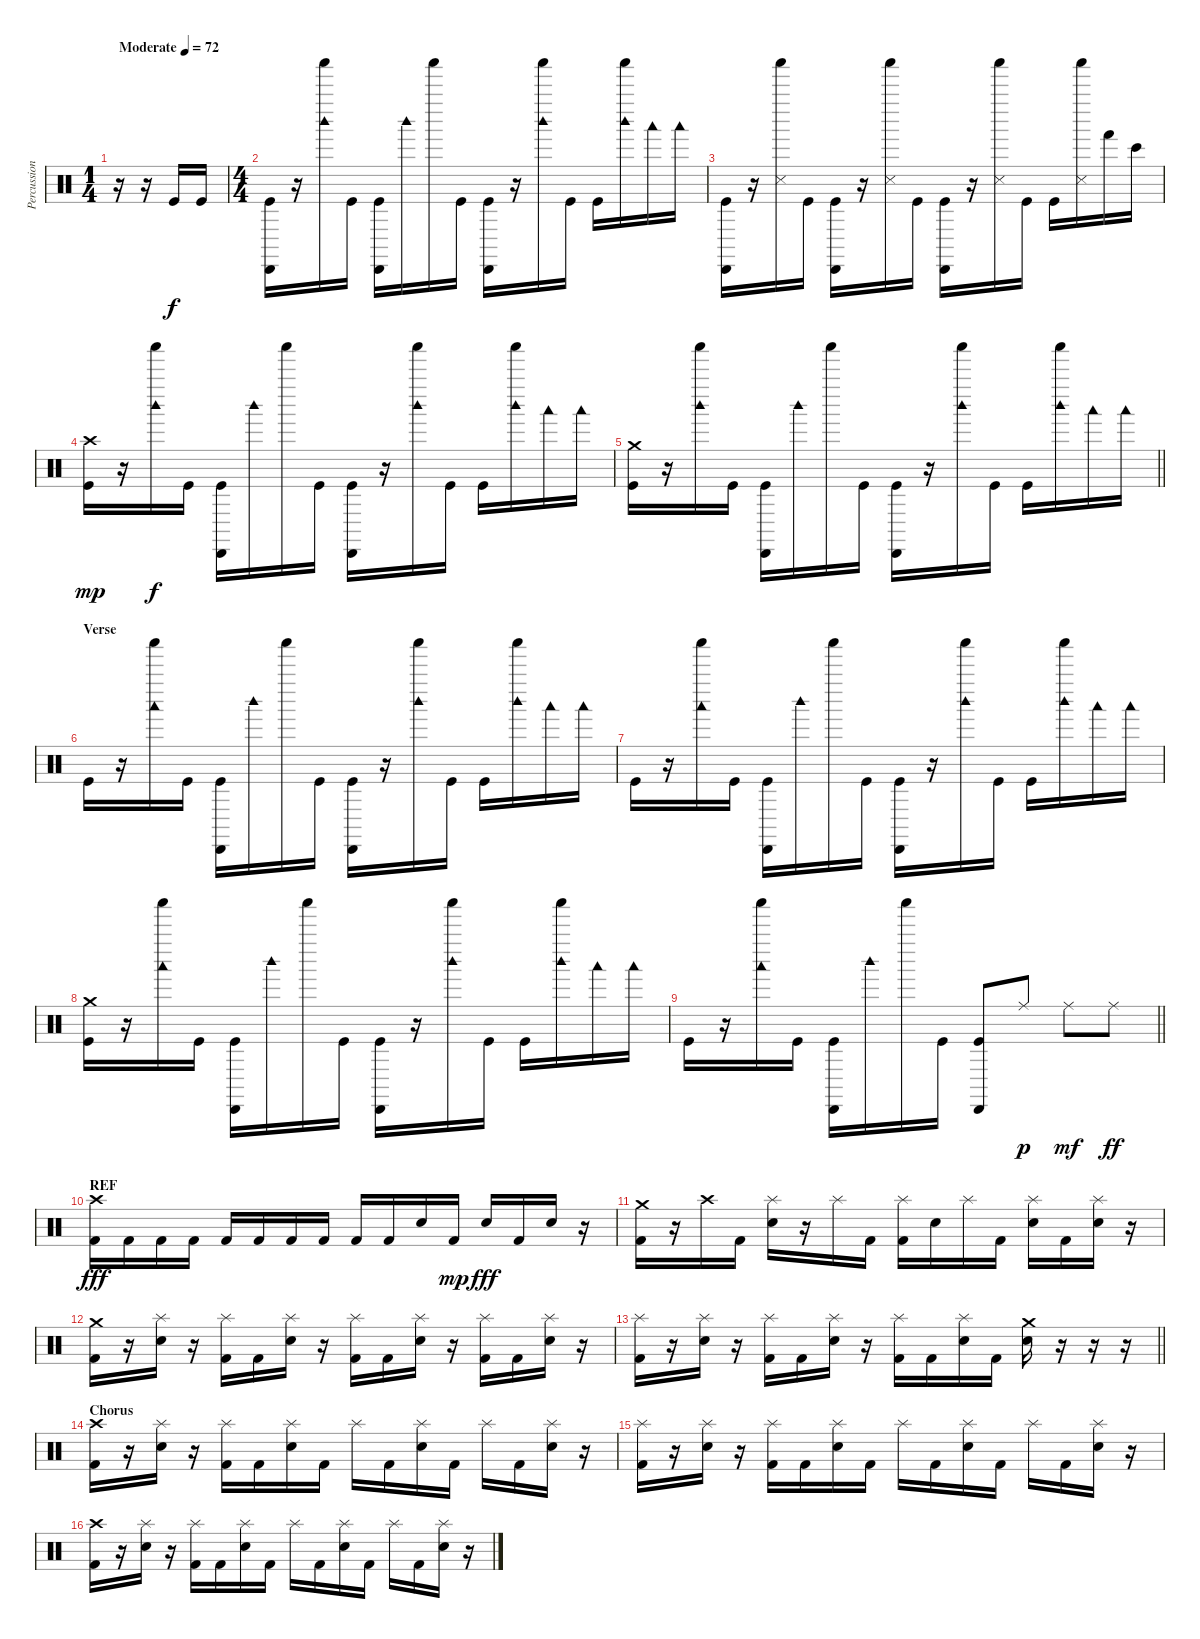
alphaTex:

\track ("Percussion" "Percussion") {instrument percussion}
\staff {score}
\articulation defaults
\ts (1 4)
\tempo (72 "Moderate")
\clef neutral
\ks c
r.16{dy f} r.16 "Kick (hit)".16 "Kick (hit)".16 |
\ts (4 4)
("Cabasa (hit)" "Kick (hit)").16 r.16 ("Shaker (hit)" "Woodblock high (hit)").16 "Kick (hit)".16 ("Cabasa (hit)" "Kick (hit)").16 "Woodblock high (hit)".16 "Shaker (hit)".16 "Kick (hit)".16 ("Cabasa (hit)" "Kick (hit)").16 r.16 ("Shaker (hit)" "Woodblock high (hit)").16 "Kick (hit)".16 "Kick (hit)".16 ("Shaker (hit)" "Woodblock high (hit)").16 "Woodblock low (hit)".16 "Woodblock low (hit)".16 |
("Cabasa (hit)" "Kick (hit)").16 r.16 ("Shaker (hit)" "Metronome (hit)").16 "Kick (hit)".16 ("Cabasa (hit)" "Kick (hit)").16 r.16 ("Shaker (hit)" "Metronome (hit)").16 "Kick (hit)".16 ("Cabasa (hit)" "Kick (hit)").16 r.16 ("Shaker (hit)" "Metronome (hit)").16 "Kick (hit)".16 "Kick (hit)".16 ("Shaker (hit)" "Metronome (hit)").16 "Hand (hit)".16 "Bongo High (hit)".16 |
("Crash high (hit)" "Kick (hit)").16{dy mp} r.16 ("Shaker (hit)" "Woodblock high (hit)").16{dy f} "Kick (hit)".16 ("Cabasa (hit)" "Kick (hit)").16 "Woodblock high (hit)".16 "Shaker (hit)".16 "Kick (hit)".16 ("Cabasa (hit)" "Kick (hit)").16 r.16 ("Shaker (hit)" "Woodblock high (hit)").16 "Kick (hit)".16 "Kick (hit)".16 ("Shaker (hit)" "Woodblock high (hit)").16 "Woodblock low (hit)".16 "Woodblock low (hit)".16 |
\barLineRight lightlight
("Crash medium (hit)" "Kick (hit)").16 r.16 ("Shaker (hit)" "Woodblock high (hit)").16 "Kick (hit)".16 ("Cabasa (hit)" "Kick (hit)").16 "Woodblock high (hit)".16 "Shaker (hit)".16 "Kick (hit)".16 ("Cabasa (hit)" "Kick (hit)").16 r.16 ("Shaker (hit)" "Woodblock high (hit)").16 "Kick (hit)".16 "Kick (hit)".16 ("Shaker (hit)" "Woodblock high (hit)").16 "Woodblock low (hit)".16 "Woodblock low (hit)".16 |
\section ("" "Verse")
"Kick (hit)".16 r.16 ("Shaker (hit)" "Woodblock low (hit)").16 "Kick (hit)".16 ("Cabasa (hit)" "Kick (hit)").16 "Woodblock high (hit)".16 "Shaker (hit)".16 "Kick (hit)".16 ("Cabasa (hit)" "Kick (hit)").16 r.16 ("Shaker (hit)" "Woodblock high (hit)").16 "Kick (hit)".16 "Kick (hit)".16 ("Shaker (hit)" "Woodblock high (hit)").16 "Woodblock low (hit)".16 "Woodblock low (hit)".16 |
"Kick (hit)".16 r.16 ("Shaker (hit)" "Woodblock low (hit)").16 "Kick (hit)".16 ("Cabasa (hit)" "Kick (hit)").16 "Woodblock high (hit)".16 "Shaker (hit)".16 "Kick (hit)".16 ("Cabasa (hit)" "Kick (hit)").16 r.16 ("Shaker (hit)" "Woodblock high (hit)").16 "Kick (hit)".16 "Kick (hit)".16 ("Shaker (hit)" "Woodblock high (hit)").16 "Woodblock low (hit)".16 "Woodblock low (hit)".16 |
("Crash medium (hit)" "Kick (hit)").16 r.16 ("Shaker (hit)" "Woodblock low (hit)").16 "Kick (hit)".16 ("Cabasa (hit)" "Kick (hit)").16 "Woodblock high (hit)".16 "Shaker (hit)".16 "Kick (hit)".16 ("Cabasa (hit)" "Kick (hit)").16 r.16 ("Shaker (hit)" "Woodblock high (hit)").16 "Kick (hit)".16 "Kick (hit)".16 ("Shaker (hit)" "Woodblock high (hit)").16 "Woodblock low (hit)".16 "Woodblock low (hit)".16 |
\barLineRight lightlight "Kick (hit)".16
r.16 ("Shaker (hit)" "Woodblock low (hit)").16 "Kick (hit)".16 ("Cabasa (hit)" "Kick (hit)").16 "Woodblock high (hit)".16 "Shaker (hit)".16 "Kick (hit)".16 ("Cabasa (hit)" "Kick (hit)").8 "Ride (middle)".8{dy p} "Ride (middle)".8{dy mf} "Ride (middle)".8{dy ff} |
\section ("" "REF")
("Crash high (hit)" "Kick (hit) 2").16{dy fff} "Kick (hit) 2".16 "Kick (hit) 2".16 "Kick (hit) 2".16 "Kick (hit) 2".16 "Kick (hit) 2".16 "Kick (hit) 2".16 "Kick (hit) 2".16 "Kick (hit) 2".16 "Kick (hit) 2".16 "Snare (hit) 2".16 "Kick (hit) 2".16{dy mp} "Snare (hit) 2".16{dy fff} "Kick (hit) 2".16 "Snare (hit) 2".16 r.16 |
("Crash medium (hit)" "Kick (hit) 2").16 r.16 "Crash high (hit)".16 "Kick (hit) 2".16 ("Splash (hit)" "Snare (hit) 2").16 r.16 "Splash (hit)".16 "Kick (hit) 2".16 ("Splash (hit)" "Kick (hit) 2").16 "Snare (hit) 2".16 "Splash (hit)".16 "Kick (hit) 2".16 ("Splash (hit)" "Snare (hit) 2").16 "Kick (hit) 2".16 ("Splash (hit)" "Snare (hit) 2").16 r.16 |
("Crash medium (hit)" "Kick (hit) 2").16 r.16 ("Splash (hit)" "Snare (hit) 2").16 r.16 ("Splash (hit)" "Kick (hit) 2").16 "Kick (hit) 2".16 ("Splash (hit)" "Snare (hit) 2").16 r.16 ("Splash (hit)" "Kick (hit) 2").16 "Kick (hit) 2".16 ("Splash (hit)" "Snare (hit) 2").16 r.16 ("Splash (hit)" "Kick (hit) 2").16 "Kick (hit) 2".16 ("Splash (hit)" "Snare (hit) 2").16 r.16 |
\barLineRight lightlight
("Splash (hit)" "Kick (hit) 2").16 r.16 ("Splash (hit)" "Snare (hit) 2").16 r.16 ("Splash (hit)" "Kick (hit) 2").16 "Kick (hit) 2".16 ("Splash (hit)" "Snare (hit) 2").16 r.16 ("Splash (hit)" "Kick (hit) 2").16 "Kick (hit) 2".16 ("Splash (hit)" "Snare (hit) 2").16 "Kick (hit) 2".16 ("Crash medium (hit)" "Snare (hit) 2").16 r.16 r.16 r.16 |
\section ("" "Chorus")
("Crash high (hit)" "Kick (hit) 2").16 r.16 ("Splash (hit)" "Snare (hit) 2").16 r.16 ("Splash (hit)" "Kick (hit) 2").16 "Kick (hit) 2".16 ("Splash (hit)" "Snare (hit) 2").16 "Kick (hit) 2".16 "Splash (hit)".16 "Kick (hit) 2".16 ("Splash (hit)" "Snare (hit) 2").16 "Kick (hit) 2".16 "Splash (hit)".16 "Kick (hit) 2".16 ("Splash (hit)" "Snare (hit) 2").16 r.16 |
("Splash (hit)" "Kick (hit) 2").16 r.16 ("Splash (hit)" "Snare (hit) 2").16 r.16 ("Splash (hit)" "Kick (hit) 2").16 "Kick (hit) 2".16 ("Splash (hit)" "Snare (hit) 2").16 "Kick (hit) 2".16 "Splash (hit)".16 "Kick (hit) 2".16 ("Splash (hit)" "Snare (hit) 2").16 "Kick (hit) 2".16 "Splash (hit)".16 "Kick (hit) 2".16 ("Splash (hit)" "Snare (hit) 2").16 r.16 |
("Crash high (hit)" "Kick (hit) 2").16 r.16 ("Splash (hit)" "Snare (hit) 2").16 r.16 ("Splash (hit)" "Kick (hit) 2").16 "Kick (hit) 2".16 ("Splash (hit)" "Snare (hit) 2").16 "Kick (hit) 2".16 "Splash (hit)".16 "Kick (hit) 2".16 ("Splash (hit)" "Snare (hit) 2").16 "Kick (hit) 2".16 "Splash (hit)".16 "Kick (hit) 2".16 ("Splash (hit)" "Snare (hit) 2").16 r.16
